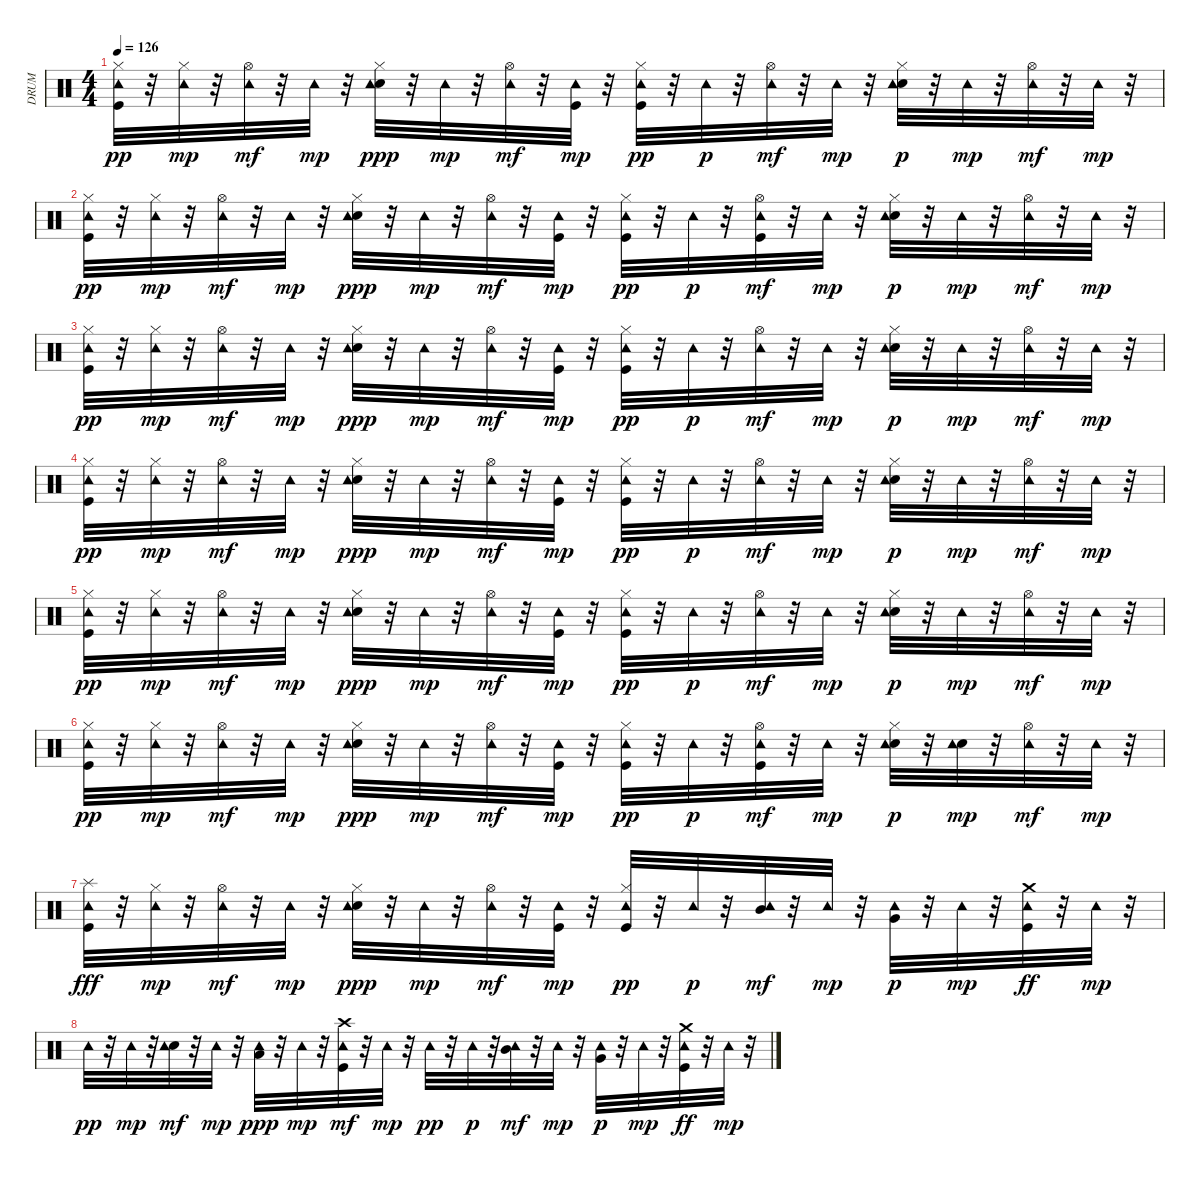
\track ("DRUM" "DRUM") {instrument percussion}
\staff {score}
\articulation defaults
\ts (4 4)
\tempo 126
\clef neutral
\ks c
("Kick (hit)" "Hi-Hat (closed)" "Tambourine (hit)").32{dy pp} r.32 ("Hi-Hat (closed)" "Tambourine (hit)").32{dy mp} r.32 ("Hi-Hat (open)" "Tambourine (hit)").32{dy mf} r.32 "Tambourine (hit)".32{dy mp} r.32 ("Electric Snare (hit)" "Hi-Hat (closed)" "Tambourine (hit)").32{dy ppp} r.32 "Tambourine (hit)".32{dy mp} r.32 ("Hi-Hat (open)" "Tambourine (hit)").32{dy mf} r.32 ("Kick (hit)" "Tambourine (hit)").32{dy mp} r.32 ("Kick (hit)" "Hi-Hat (closed)" "Tambourine (hit)").32{dy pp} r.32 "Tambourine (hit)".32{dy p} r.32 ("Hi-Hat (open)" "Tambourine (hit)").32{dy mf} r.32 "Tambourine (hit)".32{dy mp} r.32 ("Electric Snare (hit)" "Hi-Hat (closed)" "Tambourine (hit)").32{dy p} r.32 "Tambourine (hit)".32{dy mp} r.32 ("Hi-Hat (open)" "Tambourine (hit)").32{dy mf} r.32 "Tambourine (hit)".32{dy mp} r.32 |
("Kick (hit)" "Hi-Hat (closed)" "Tambourine (hit)").32{dy pp} r.32 ("Hi-Hat (closed)" "Tambourine (hit)").32{dy mp} r.32 ("Hi-Hat (open)" "Tambourine (hit)").32{dy mf} r.32 "Tambourine (hit)".32{dy mp} r.32 ("Electric Snare (hit)" "Hi-Hat (closed)" "Tambourine (hit)").32{dy ppp} r.32 "Tambourine (hit)".32{dy mp} r.32 ("Hi-Hat (open)" "Tambourine (hit)").32{dy mf} r.32 ("Kick (hit)" "Tambourine (hit)").32{dy mp} r.32 ("Kick (hit)" "Hi-Hat (closed)" "Tambourine (hit)").32{dy pp} r.32 "Tambourine (hit)".32{dy p} r.32 ("Kick (hit)" "Hi-Hat (open)" "Tambourine (hit)").32{dy mf} r.32 "Tambourine (hit)".32{dy mp} r.32 ("Electric Snare (hit)" "Hi-Hat (closed)" "Tambourine (hit)").32{dy p} r.32 "Tambourine (hit)".32{dy mp} r.32 ("Hi-Hat (open)" "Tambourine (hit)").32{dy mf} r.32 "Tambourine (hit)".32{dy mp} r.32 |
("Kick (hit)" "Hi-Hat (closed)" "Tambourine (hit)").32{dy pp} r.32 ("Hi-Hat (closed)" "Tambourine (hit)").32{dy mp} r.32 ("Hi-Hat (open)" "Tambourine (hit)").32{dy mf} r.32 "Tambourine (hit)".32{dy mp} r.32 ("Electric Snare (hit)" "Hi-Hat (closed)" "Tambourine (hit)").32{dy ppp} r.32 "Tambourine (hit)".32{dy mp} r.32 ("Hi-Hat (open)" "Tambourine (hit)").32{dy mf} r.32 ("Kick (hit)" "Tambourine (hit)").32{dy mp} r.32 ("Kick (hit)" "Hi-Hat (closed)" "Tambourine (hit)").32{dy pp} r.32 "Tambourine (hit)".32{dy p} r.32 ("Hi-Hat (open)" "Tambourine (hit)").32{dy mf} r.32 "Tambourine (hit)".32{dy mp} r.32 ("Electric Snare (hit)" "Hi-Hat (closed)" "Tambourine (hit)").32{dy p} r.32 "Tambourine (hit)".32{dy mp} r.32 ("Hi-Hat (open)" "Tambourine (hit)").32{dy mf} r.32 "Tambourine (hit)".32{dy mp} r.32 |
("Kick (hit)" "Hi-Hat (closed)" "Tambourine (hit)").32{dy pp} r.32 ("Hi-Hat (closed)" "Tambourine (hit)").32{dy mp} r.32 ("Hi-Hat (open)" "Tambourine (hit)").32{dy mf} r.32 "Tambourine (hit)".32{dy mp} r.32 ("Electric Snare (hit)" "Hi-Hat (closed)" "Tambourine (hit)").32{dy ppp} r.32 "Tambourine (hit)".32{dy mp} r.32 ("Hi-Hat (open)" "Tambourine (hit)").32{dy mf} r.32 ("Kick (hit)" "Tambourine (hit)").32{dy mp} r.32 ("Kick (hit)" "Hi-Hat (closed)" "Tambourine (hit)").32{dy pp} r.32 "Tambourine (hit)".32{dy p} r.32 ("Hi-Hat (open)" "Tambourine (hit)").32{dy mf} r.32 "Tambourine (hit)".32{dy mp} r.32 ("Electric Snare (hit)" "Hi-Hat (closed)" "Tambourine (hit)").32{dy p} r.32 "Tambourine (hit)".32{dy mp} r.32 ("Hi-Hat (open)" "Tambourine (hit)").32{dy mf} r.32 "Tambourine (hit)".32{dy mp} r.32 |
("Kick (hit)" "Hi-Hat (closed)" "Tambourine (hit)").32{dy pp} r.32 ("Hi-Hat (closed)" "Tambourine (hit)").32{dy mp} r.32 ("Hi-Hat (open)" "Tambourine (hit)").32{dy mf} r.32 "Tambourine (hit)".32{dy mp} r.32 ("Electric Snare (hit)" "Hi-Hat (closed)" "Tambourine (hit)").32{dy ppp} r.32 "Tambourine (hit)".32{dy mp} r.32 ("Hi-Hat (open)" "Tambourine (hit)").32{dy mf} r.32 ("Kick (hit)" "Tambourine (hit)").32{dy mp} r.32 ("Kick (hit)" "Hi-Hat (closed)" "Tambourine (hit)").32{dy pp} r.32 "Tambourine (hit)".32{dy p} r.32 ("Hi-Hat (open)" "Tambourine (hit)").32{dy mf} r.32 "Tambourine (hit)".32{dy mp} r.32 ("Electric Snare (hit)" "Hi-Hat (closed)" "Tambourine (hit)").32{dy p} r.32 "Tambourine (hit)".32{dy mp} r.32 ("Hi-Hat (open)" "Tambourine (hit)").32{dy mf} r.32 "Tambourine (hit)".32{dy mp} r.32 |
("Kick (hit)" "Hi-Hat (closed)" "Tambourine (hit)").32{dy pp} r.32 ("Hi-Hat (closed)" "Tambourine (hit)").32{dy mp} r.32 ("Hi-Hat (open)" "Tambourine (hit)").32{dy mf} r.32 "Tambourine (hit)".32{dy mp} r.32 ("Electric Snare (hit)" "Hi-Hat (closed)" "Tambourine (hit)").32{dy ppp} r.32 "Tambourine (hit)".32{dy mp} r.32 ("Hi-Hat (open)" "Tambourine (hit)").32{dy mf} r.32 ("Kick (hit)" "Tambourine (hit)").32{dy mp} r.32 ("Kick (hit)" "Hi-Hat (closed)" "Tambourine (hit)").32{dy pp} r.32 "Tambourine (hit)".32{dy p} r.32 ("Kick (hit)" "Hi-Hat (open)" "Tambourine (hit)").32{dy mf} r.32 "Tambourine (hit)".32{dy mp} r.32 ("Electric Snare (hit)" "Hi-Hat (closed)" "Tambourine (hit)").32{dy p} r.32 ("Electric Snare (hit)" "Tambourine (hit)").32{dy mp} r.32 ("Hi-Hat (open)" "Tambourine (hit)").32{dy mf} r.32 "Tambourine (hit)".32{dy mp} r.32 |
("Kick (hit)" "Tambourine (hit)" "Splash (hit)").32{dy fff} r.32 ("Hi-Hat (closed)" "Tambourine (hit)").32{dy mp} r.32 ("Hi-Hat (open)" "Tambourine (hit)").32{dy mf} r.32 "Tambourine (hit)".32{dy mp} r.32 ("Electric Snare (hit)" "Hi-Hat (closed)" "Tambourine (hit)").32{dy ppp} r.32 "Tambourine (hit)".32{dy mp} r.32 ("Hi-Hat (open)" "Tambourine (hit)").32{dy mf} r.32 ("Kick (hit)" "Tambourine (hit)").32{dy mp} r.32 ("Kick (hit)" "Hi-Hat (closed)" "Tambourine (hit)").32{dy pp} r.32 "Tambourine (hit)".32{dy p} r.32 ("Mid Tom (hit)" "Tambourine (hit)").32{dy mf} r.32 "Tambourine (hit)".32{dy mp} r.32 ("Very Low Tom (hit)" "Tambourine (hit)").32{dy p} r.32 "Tambourine (hit)".32{dy mp} r.32 ("Kick (hit)" "Tambourine (hit)" "Crash medium (hit)").32{dy ff} r.32 "Tambourine (hit)".32{dy mp} r.32 |
"Tambourine (hit)".32{dy pp} r.32 "Tambourine (hit)".32{dy mp} r.32 ("Electric Snare (hit)" "Tambourine (hit)").32{dy mf} r.32 "Tambourine (hit)".32{dy mp} r.32 ("Low Tom (hit)" "Tambourine (hit)").32{dy ppp} r.32 "Tambourine (hit)".32{dy mp} r.32 ("Kick (hit)" "Crash high (hit)" "Tambourine (hit)").32{dy mf} r.32 "Tambourine (hit)".32{dy mp} r.32 "Tambourine (hit)".32{dy pp} r.32 "Tambourine (hit)".32{dy p} r.32 ("Mid Tom (hit)" "Tambourine (hit)").32{dy mf} r.32 "Tambourine (hit)".32{dy mp} r.32 ("Very Low Tom (hit)" "Tambourine (hit)").32{dy p} r.32 "Tambourine (hit)".32{dy mp} r.32 ("Kick (hit)" "Tambourine (hit)" "Crash medium (hit)").32{dy ff} r.32 "Tambourine (hit)".32{dy mp} r.32
